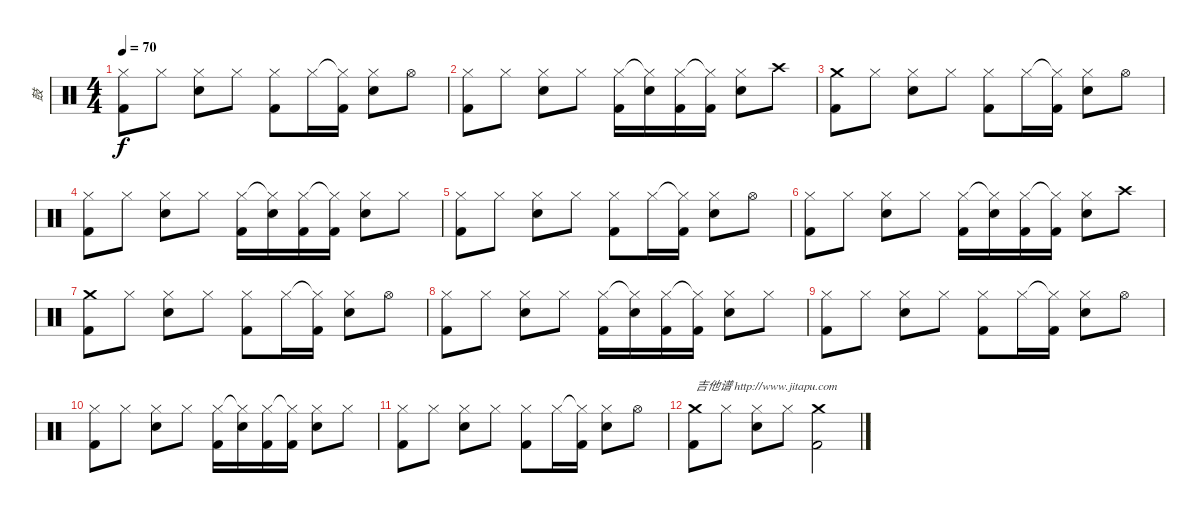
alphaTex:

\track ("鼓" "鼓") {instrument percussion}
\staff {score}
\articulation defaults
\ts (4 4)
\tempo 70
\clef neutral
\ks c
("Hi-Hat (closed)" "Kick (hit) 2").8{dy f} "Hi-Hat (closed)".8 ("Hi-Hat (closed)" "Electric Snare (hit)").8 "Hi-Hat (closed)".8 ("Hi-Hat (closed)" "Kick (hit) 2").8 "Hi-Hat (closed)".16 ("Hi-Hat (closed)"{t} "Kick (hit) 2").16 ("Hi-Hat (closed)" "Electric Snare (hit)").8 "Hi-Hat (open)".8 |
("Hi-Hat (closed)" "Kick (hit) 2").8 "Hi-Hat (closed)".8 ("Hi-Hat (closed)" "Electric Snare (hit)").8 "Hi-Hat (closed)".8 ("Hi-Hat (closed)" "Kick (hit) 2").16 ("Hi-Hat (closed)"{t} "Electric Snare (hit)").16 ("Hi-Hat (closed)" "Kick (hit) 2").16 ("Hi-Hat (closed)"{t} "Kick (hit) 2").16 ("Hi-Hat (closed)" "Electric Snare (hit)").8 "Crash high (hit)".8 |
("Crash medium (hit)" "Kick (hit) 2").8 "Hi-Hat (closed)".8 ("Hi-Hat (closed)" "Electric Snare (hit)").8 "Hi-Hat (closed)".8 ("Hi-Hat (closed)" "Kick (hit) 2").8 "Hi-Hat (closed)".16 ("Hi-Hat (closed)"{t} "Kick (hit) 2").16 ("Hi-Hat (closed)" "Electric Snare (hit)").8 "Hi-Hat (open)".8 |
("Hi-Hat (closed)" "Kick (hit) 2").8 "Hi-Hat (closed)".8 ("Hi-Hat (closed)" "Electric Snare (hit)").8 "Hi-Hat (closed)".8 ("Hi-Hat (closed)" "Kick (hit) 2").16 ("Hi-Hat (closed)"{t} "Electric Snare (hit)").16 ("Hi-Hat (closed)" "Kick (hit) 2").16 ("Hi-Hat (closed)"{t} "Kick (hit) 2").16 ("Hi-Hat (closed)" "Electric Snare (hit)").8 "Hi-Hat (closed)".8 |
("Hi-Hat (closed)" "Kick (hit) 2").8 "Hi-Hat (closed)".8 ("Hi-Hat (closed)" "Electric Snare (hit)").8 "Hi-Hat (closed)".8 ("Hi-Hat (closed)" "Kick (hit) 2").8 "Hi-Hat (closed)".16 ("Hi-Hat (closed)"{t} "Kick (hit) 2").16 ("Hi-Hat (closed)" "Electric Snare (hit)").8 "Hi-Hat (open)".8 |
("Hi-Hat (closed)" "Kick (hit) 2").8 "Hi-Hat (closed)".8 ("Hi-Hat (closed)" "Electric Snare (hit)").8 "Hi-Hat (closed)".8 ("Hi-Hat (closed)" "Kick (hit) 2").16 ("Hi-Hat (closed)"{t} "Electric Snare (hit)").16 ("Hi-Hat (closed)" "Kick (hit) 2").16 ("Hi-Hat (closed)"{t} "Kick (hit) 2").16 ("Hi-Hat (closed)" "Electric Snare (hit)").8 "Crash high (hit)".8 |
("Crash medium (hit)" "Kick (hit) 2").8 "Hi-Hat (closed)".8 ("Hi-Hat (closed)" "Electric Snare (hit)").8 "Hi-Hat (closed)".8 ("Hi-Hat (closed)" "Kick (hit) 2").8 "Hi-Hat (closed)".16 ("Hi-Hat (closed)"{t} "Kick (hit) 2").16 ("Hi-Hat (closed)" "Electric Snare (hit)").8 "Hi-Hat (open)".8 |
("Hi-Hat (closed)" "Kick (hit) 2").8 "Hi-Hat (closed)".8 ("Hi-Hat (closed)" "Electric Snare (hit)").8 "Hi-Hat (closed)".8 ("Hi-Hat (closed)" "Kick (hit) 2").16 ("Hi-Hat (closed)"{t} "Electric Snare (hit)").16 ("Hi-Hat (closed)" "Kick (hit) 2").16 ("Hi-Hat (closed)"{t} "Kick (hit) 2").16 ("Hi-Hat (closed)" "Electric Snare (hit)").8 "Hi-Hat (closed)".8 |
("Hi-Hat (closed)" "Kick (hit) 2").8 "Hi-Hat (closed)".8 ("Hi-Hat (closed)" "Electric Snare (hit)").8 "Hi-Hat (closed)".8 ("Hi-Hat (closed)" "Kick (hit) 2").8 "Hi-Hat (closed)".16 ("Hi-Hat (closed)"{t} "Kick (hit) 2").16 ("Hi-Hat (closed)" "Electric Snare (hit)").8 "Hi-Hat (open)".8 |
("Hi-Hat (closed)" "Kick (hit) 2").8 "Hi-Hat (closed)".8 ("Hi-Hat (closed)" "Electric Snare (hit)").8 "Hi-Hat (closed)".8 ("Hi-Hat (closed)" "Kick (hit) 2").16 ("Hi-Hat (closed)"{t} "Electric Snare (hit)").16 ("Hi-Hat (closed)" "Kick (hit) 2").16 ("Hi-Hat (closed)"{t} "Kick (hit) 2").16 ("Hi-Hat (closed)" "Electric Snare (hit)").8 "Hi-Hat (closed)".8 |
("Hi-Hat (closed)" "Kick (hit) 2").8 "Hi-Hat (closed)".8 ("Hi-Hat (closed)" "Electric Snare (hit)").8 "Hi-Hat (closed)".8 ("Hi-Hat (closed)" "Kick (hit) 2").8 "Hi-Hat (closed)".16 ("Hi-Hat (closed)"{t} "Kick (hit) 2").16 ("Hi-Hat (closed)" "Electric Snare (hit)").8 "Hi-Hat (open)".8 |
("Crash medium (hit)" "Kick (hit) 2").8{txt "吉他谱 http://www.jitapu.com"} "Hi-Hat (closed)".8 ("Hi-Hat (closed)" "Electric Snare (hit)").8 "Hi-Hat (closed)".8 ("Crash medium (hit)" "Kick (hit) 2").2
